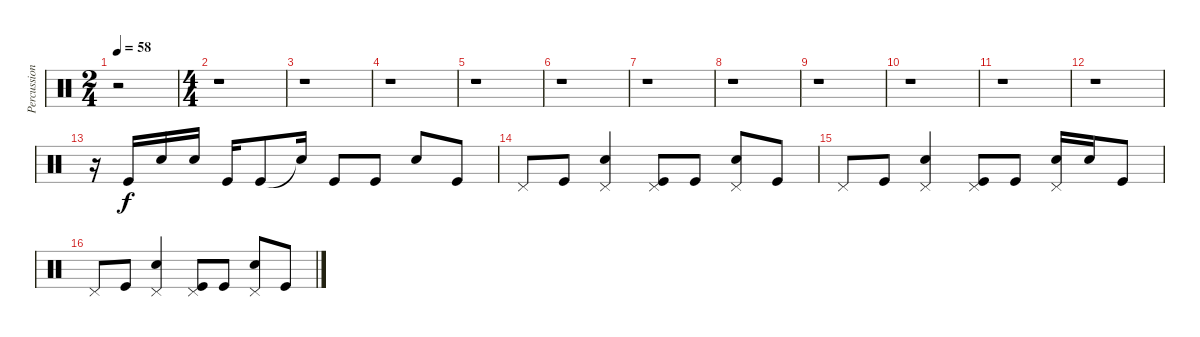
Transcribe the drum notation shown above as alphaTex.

\track ("Percussion" "Percussion") {instrument percussion}
\staff {score}
\articulation defaults
\ts (2 4)
\tempo 58
\clef neutral
\ks c
r.2{dy f} |
\ts (4 4)
r.1 |
r.1 |
r.1 |
r.1 |
r.1 |
r.1 |
r.1 |
r.1 |
r.1 |
r.1 |
r.1 |
r.16 "Kick (hit)".16 "Electric Snare (hit)".16 "Electric Snare (hit)".16 "Kick (hit)".16 "Kick (hit)".8 "Snare (hit)"{t}.16 "Kick (hit)".8 "Kick (hit)".8 "Electric Snare (hit)".8 "Kick (hit)".8 |
"Pedal Hi-Hat (hit)".8 "Kick (hit)".8 ("Pedal Hi-Hat (hit)" "Electric Snare (hit)").4 ("Pedal Hi-Hat (hit)" "Kick (hit)").8 "Kick (hit)".8 ("Pedal Hi-Hat (hit)" "Electric Snare (hit)").8 "Kick (hit)".8 |
"Pedal Hi-Hat (hit)".8 "Kick (hit)".8 ("Pedal Hi-Hat (hit)" "Electric Snare (hit)").4 ("Pedal Hi-Hat (hit)" "Kick (hit)").8 "Kick (hit)".8 ("Pedal Hi-Hat (hit)" "Electric Snare (hit)").16 "Electric Snare (hit)".16 "Kick (hit)".8 |
"Pedal Hi-Hat (hit)".8 "Kick (hit)".8 ("Pedal Hi-Hat (hit)" "Electric Snare (hit)").4 ("Pedal Hi-Hat (hit)" "Kick (hit)").8 "Kick (hit)".8 ("Pedal Hi-Hat (hit)" "Electric Snare (hit)").8 "Kick (hit)".8
